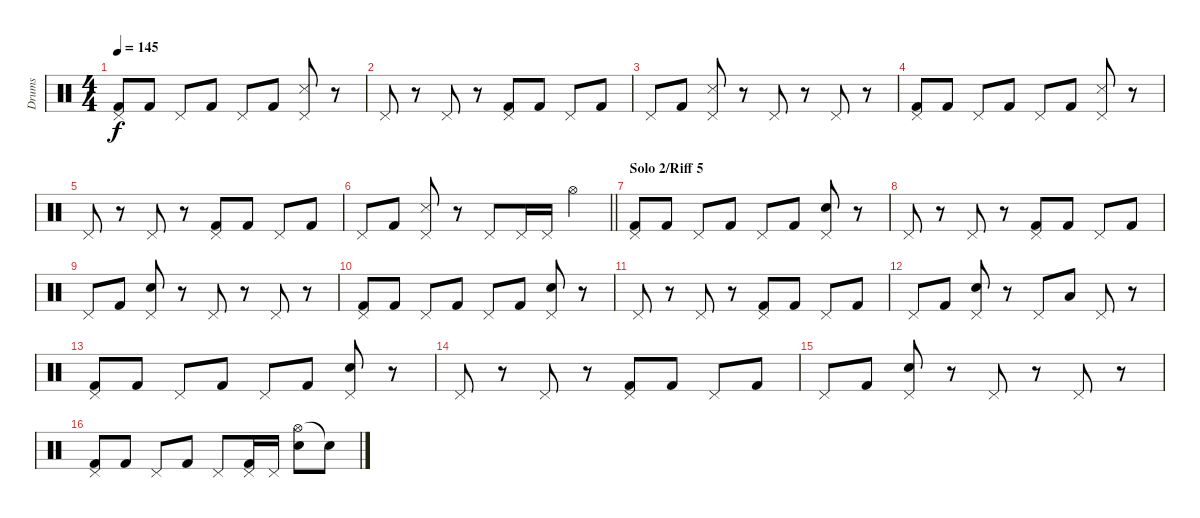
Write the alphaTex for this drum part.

\track ("Drums" "Drums") {instrument percussion}
\staff {score}
\articulation defaults
\ts (4 4)
\tempo 145
\clef neutral
\ks c
("Pedal Hi-Hat (hit)" "Kick (hit) 2").8{dy f} "Kick (hit) 2".8 "Pedal Hi-Hat (hit)".8 "Kick (hit) 2".8 "Pedal Hi-Hat (hit)".8 "Kick (hit) 2".8 ("Pedal Hi-Hat (hit)" "Snare (side stick) 3").8 r.8 |
"Pedal Hi-Hat (hit)".8 r.8 "Pedal Hi-Hat (hit)".8 r.8 ("Pedal Hi-Hat (hit)" "Kick (hit) 2").8 "Kick (hit) 2".8 "Pedal Hi-Hat (hit)".8 "Kick (hit) 2".8 |
"Pedal Hi-Hat (hit)".8 "Kick (hit) 2".8 ("Pedal Hi-Hat (hit)" "Snare (side stick) 3").8 r.8 "Pedal Hi-Hat (hit)".8 r.8 "Pedal Hi-Hat (hit)".8 r.8 |
("Pedal Hi-Hat (hit)" "Kick (hit) 2").8 "Kick (hit) 2".8 "Pedal Hi-Hat (hit)".8 "Kick (hit) 2".8 "Pedal Hi-Hat (hit)".8 "Kick (hit) 2".8 ("Pedal Hi-Hat (hit)" "Snare (side stick) 3").8 r.8 |
"Pedal Hi-Hat (hit)".8 r.8 "Pedal Hi-Hat (hit)".8 r.8 ("Pedal Hi-Hat (hit)" "Kick (hit) 2").8 "Kick (hit) 2".8 "Pedal Hi-Hat (hit)".8 "Kick (hit) 2".8 |
\barLineRight lightlight "Pedal Hi-Hat (hit)".8 "Kick (hit) 2".8
("Pedal Hi-Hat (hit)" "Snare (side stick) 3").8 r.8 "Pedal Hi-Hat (hit)".8 "Pedal Hi-Hat (hit)".16 "Pedal Hi-Hat (hit)".16 "Hi-Hat (open)".4 |
\section ("" "Solo 2/Riff 5")
("Pedal Hi-Hat (hit)" "Kick (hit) 2").8 "Kick (hit) 2".8 "Pedal Hi-Hat (hit)".8 "Kick (hit) 2".8 "Pedal Hi-Hat (hit)".8 "Kick (hit) 2".8 ("Pedal Hi-Hat (hit)" "Electric Snare (hit)").8 r.8 |
"Pedal Hi-Hat (hit)".8 r.8 "Pedal Hi-Hat (hit)".8 r.8 ("Pedal Hi-Hat (hit)" "Kick (hit) 2").8 "Kick (hit) 2".8 "Pedal Hi-Hat (hit)".8 "Kick (hit) 2".8 |
"Pedal Hi-Hat (hit)".8 "Kick (hit) 2".8 ("Pedal Hi-Hat (hit)" "Electric Snare (hit)").8 r.8 "Pedal Hi-Hat (hit)".8 r.8 "Pedal Hi-Hat (hit)".8 r.8 |
("Pedal Hi-Hat (hit)" "Kick (hit) 2").8 "Kick (hit) 2".8 "Pedal Hi-Hat (hit)".8 "Kick (hit) 2".8 "Pedal Hi-Hat (hit)".8 "Kick (hit) 2".8 ("Pedal Hi-Hat (hit)" "Electric Snare (hit)").8 r.8 |
"Pedal Hi-Hat (hit)".8 r.8 "Pedal Hi-Hat (hit)".8 r.8 ("Pedal Hi-Hat (hit)" "Kick (hit) 2").8 "Kick (hit) 2".8 "Pedal Hi-Hat (hit)".8 "Kick (hit) 2".8 |
"Pedal Hi-Hat (hit)".8 "Kick (hit) 2".8 ("Pedal Hi-Hat (hit)" "Electric Snare (hit)").8 r.8 "Pedal Hi-Hat (hit)".8 "Low Tom (hit)".8 "Pedal Hi-Hat (hit)".8 r.8 |
("Pedal Hi-Hat (hit)" "Kick (hit) 2").8 "Kick (hit) 2".8 "Pedal Hi-Hat (hit)".8 "Kick (hit) 2".8 "Pedal Hi-Hat (hit)".8 "Kick (hit) 2".8 ("Pedal Hi-Hat (hit)" "Electric Snare (hit)").8 r.8 |
"Pedal Hi-Hat (hit)".8 r.8 "Pedal Hi-Hat (hit)".8 r.8 ("Pedal Hi-Hat (hit)" "Kick (hit) 2").8 "Kick (hit) 2".8 "Pedal Hi-Hat (hit)".8 "Kick (hit) 2".8 |
"Pedal Hi-Hat (hit)".8 "Kick (hit) 2".8 ("Pedal Hi-Hat (hit)" "Electric Snare (hit)").8 r.8 "Pedal Hi-Hat (hit)".8 r.8 "Pedal Hi-Hat (hit)".8 r.8 |
("Pedal Hi-Hat (hit)" "Kick (hit) 2").8 "Kick (hit) 2".8 "Pedal Hi-Hat (hit)".8 "Kick (hit) 2".8 "Pedal Hi-Hat (hit)".8 ("Pedal Hi-Hat (hit)" "Kick (hit) 2").16 "Pedal Hi-Hat (hit)".16 ("Hi-Hat (open)" "Electric Snare (hit)").8 "Snare (hit)"{t}.8
